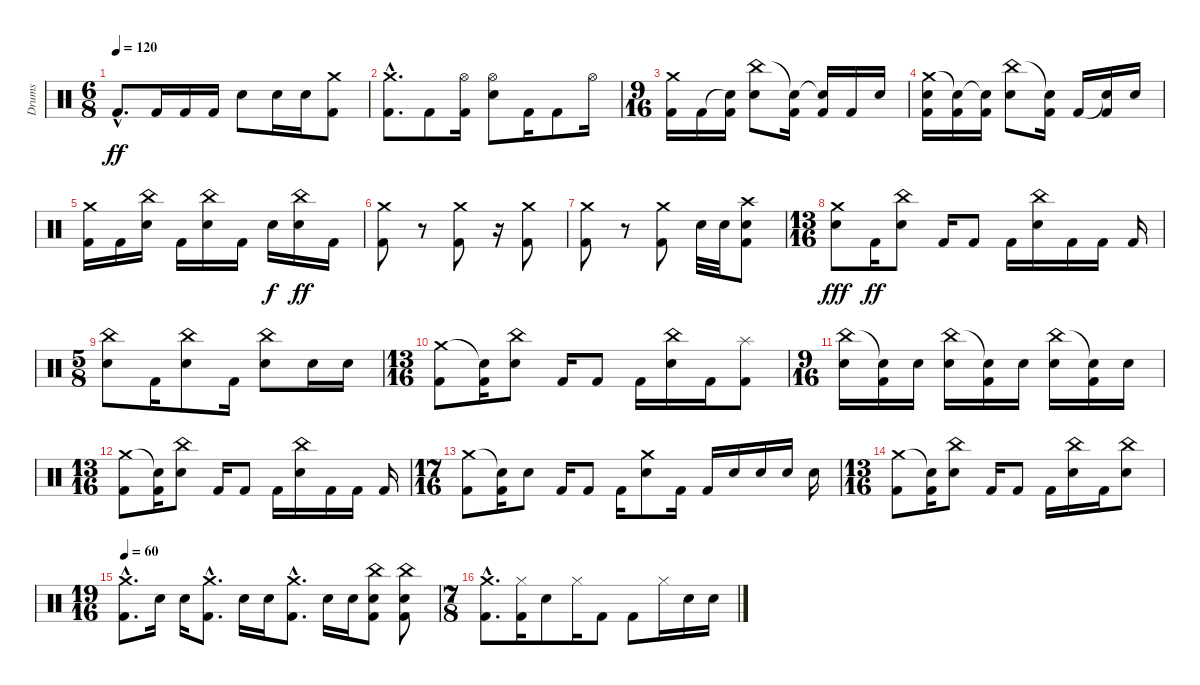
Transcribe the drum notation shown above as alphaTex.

\track ("Drums" "Drums") {instrument percussion}
\staff {score}
\articulation defaults
\ts (6 8)
\tempo 120
\clef neutral
\ks c "Kick (hit) 2"{hac}.8{d dy ff} "Kick (hit) 2".16 "Kick (hit) 2".16 "Kick (hit) 2".16 "Snare (hit) 2".8 "Snare (hit) 2".16 "Snare (hit) 2".16
("Crash medium (hit)" "Kick (hit) 2").8 |
("Crash medium (hit)"{hac} "Kick (hit) 2"{hac}).8{d} "Kick (hit) 2".8 ("Hi-Hat (open)" "Kick (hit) 2").16 ("Hi-Hat (open)" "Snare (hit) 2").8 "Kick (hit) 2".16 "Kick (hit) 2".8 "Hi-Hat (open)".16 |
\ts (9 16)
("Crash medium (hit)" "Kick (hit) 2").16 "Kick (hit) 2".16 ("Snare (hit)"{t} "Kick (hit) 2").16 ("China (hit)" "Snare (hit) 2").8 ("Snare (hit)"{t} "Kick (hit) 2").16 ("Snare (hit)"{t} "Kick (hit) 2").16 "Kick (hit) 2".16 "Snare (hit) 2".16 |
("Crash medium (hit)" "Snare (hit) 2" "Kick (hit) 2").16 ("Snare (hit)"{t} "Kick (hit) 2").16 ("Snare (hit)"{t} "Kick (hit) 2").16 ("China (hit)" "Snare (hit) 2").8 ("Snare (hit)"{t} "Kick (hit) 2").16 "Kick (hit) 2".16 ("Snare (hit)"{t} "Kick (hit) 2").16 "Snare (hit) 2".16 |
("Crash medium (hit)" "Kick (hit) 2").16 "Kick (hit) 2".16 ("China (hit)" "Snare (hit) 2").16 "Kick (hit) 2".16 ("China (hit)" "Snare (hit) 2").16 "Kick (hit) 2".16 "Snare (hit) 2".16{dy f} ("China (hit)" "Snare (hit) 2").16{dy ff} "Kick (hit) 2".16 |
("Crash medium (hit)" "Kick (hit) 2").8 r.8 ("Crash medium (hit)" "Kick (hit) 2").8 r.16 ("Crash medium (hit)" "Kick (hit) 2").8 |
("Crash medium (hit)" "Kick (hit) 2").8 r.8 ("Crash medium (hit)" "Kick (hit) 2").8 "Snare (hit) 2".32 "Snare (hit) 2".32 ("Crash high (hit)" "Snare (hit) 2" "Kick (hit) 2").8 |
\ts (13 16)
("Crash medium (hit)" "Snare (hit) 2").8{dy fff} "Kick (hit) 2".16{dy ff} ("China (hit)" "Snare (hit) 2").8 "Kick (hit) 2".16 "Kick (hit) 2".8 "Kick (hit) 2".16 ("China (hit)" "Snare (hit) 2").16 "Kick (hit) 2".16 "Kick (hit) 2".16 "Kick (hit) 2".16 |
\ts (5 8)
("China (hit)" "Snare (hit) 2").8 "Kick (hit) 2".16 ("China (hit)" "Snare (hit) 2").8 "Kick (hit) 2".16 ("China (hit)" "Snare (hit) 2").8 "Snare (hit) 2".16 "Snare (hit) 2".16 |
\ts (13 16)
("Crash medium (hit)" "Kick (hit) 2").8 ("Snare (hit)"{t} "Kick (hit) 2").16 ("China (hit)" "Snare (hit) 2").8 "Kick (hit) 2".16 "Kick (hit) 2".8 "Kick (hit) 2".16 ("China (hit)" "Snare (hit) 2").16 "Kick (hit) 2".16 ("Splash (hit)" "Kick (hit) 2").8 |
\ts (9 16)
("China (hit)" "Snare (hit) 2").16 ("Snare (hit)"{t} "Kick (hit) 2").16 "Snare (hit) 2".16 ("China (hit)" "Snare (hit) 2").16 ("Snare (hit)"{t} "Kick (hit) 2").16 "Snare (hit) 2".16 ("China (hit)" "Snare (hit) 2").16 ("Snare (hit)"{t} "Kick (hit) 2").16 "Snare (hit) 2".16 |
\ts (13 16)
("Crash medium (hit)" "Kick (hit) 2").8 ("Snare (hit)"{t} "Kick (hit) 2").16 ("China (hit)" "Snare (hit) 2").8 "Kick (hit) 2".16 "Kick (hit) 2".8 "Kick (hit) 2".16 ("China (hit)" "Snare (hit) 2").16 "Kick (hit) 2".16 "Kick (hit) 2".16 "Kick (hit) 2".16 |
\ts (17 16)
("Crash medium (hit)" "Kick (hit) 2").8 ("Snare (hit)"{t} "Kick (hit) 2").16 "Snare (hit) 2".8 "Kick (hit) 2".16 "Kick (hit) 2".8 "Kick (hit) 2".16 ("Crash medium (hit)" "Snare (hit) 2").8 "Kick (hit) 2".16 "Kick (hit) 2".16 "Snare (hit) 2".16 "Snare (hit) 2".16 "Snare (hit) 2".16 "Snare (hit) 2".16 |
\ts (13 16)
("Crash medium (hit)" "Kick (hit) 2").8 ("Snare (hit)"{t} "Kick (hit) 2").16 ("China (hit)" "Snare (hit) 2").8 "Kick (hit) 2".16 "Kick (hit) 2".8 "Kick (hit) 2".16 ("China (hit)" "Snare (hit) 2").16 "Kick (hit) 2".16 ("China (hit)" "Snare (hit) 2").8 |
\ts (19 16)
\tempo 60
("Crash medium (hit)"{hac} "Kick (hit) 2"{hac}).8{d} "Snare (hit) 2".16 "Snare (hit) 2".16 ("Crash medium (hit)"{hac} "Kick (hit) 2"{hac}).8{d} "Snare (hit) 2".16 "Snare (hit) 2".16 ("Crash medium (hit)"{hac} "Kick (hit) 2"{hac}).8{d} "Snare (hit) 2".16 "Snare (hit) 2".16 ("China (hit)" "Snare (hit) 2" "Kick (hit) 2").8 ("China (hit)" "Snare (hit) 2" "Kick (hit) 2").8 |
\ts (7 8)
("Crash medium (hit)"{hac} "Kick (hit) 2"{hac}).8{d} ("Hi-Hat (closed)" "Kick (hit) 2").16 "Snare (hit) 2".8 "Hi-Hat (closed)".16 "Kick (hit) 2".8 "Kick (hit) 2".8 "Hi-Hat (closed)".16 "Snare (hit) 2".16 "Snare (hit) 2".16
